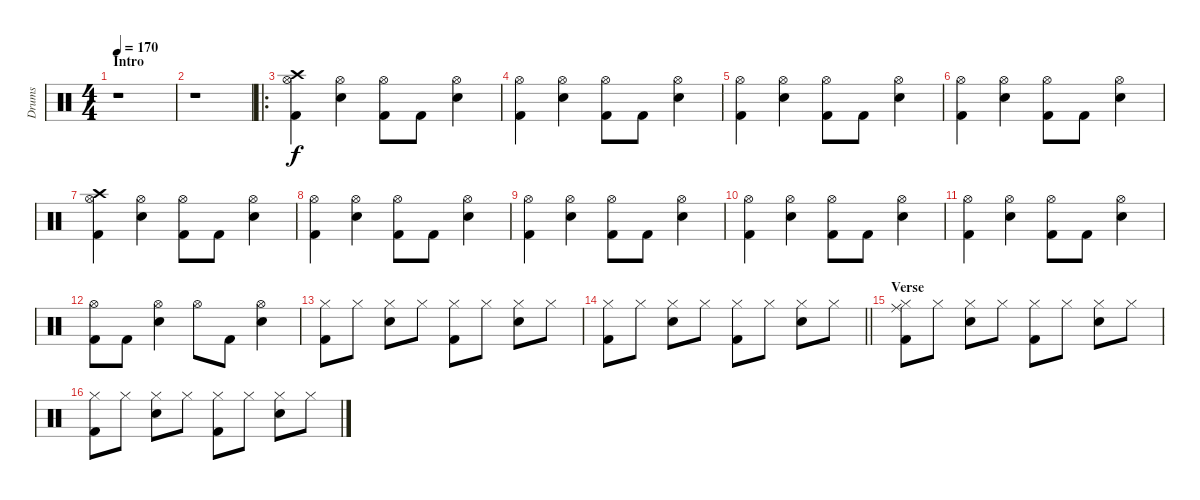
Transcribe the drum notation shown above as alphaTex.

\track ("Drums" "Drums") {instrument percussion}
\staff {score}
\articulation defaults
\ts (4 4)
\section ("" "Intro")
\tempo 170
\clef neutral
\ks c
r.1{dy f} |
r.1 |
\ro
("Crash high (hit)" "Hi-Hat (open)" "Kick (hit) 2").4 ("Hi-Hat (open)" "Electric Snare (hit)").4 ("Hi-Hat (open)" "Kick (hit) 2").8 "Kick (hit) 2".8 ("Hi-Hat (open)" "Electric Snare (hit)").4 |
("Hi-Hat (open)" "Kick (hit) 2").4 ("Hi-Hat (open)" "Electric Snare (hit)").4 ("Hi-Hat (open)" "Kick (hit) 2").8 "Kick (hit) 2".8 ("Hi-Hat (open)" "Electric Snare (hit)").4 |
("Hi-Hat (open)" "Kick (hit) 2").4 ("Hi-Hat (open)" "Electric Snare (hit)").4 ("Hi-Hat (open)" "Kick (hit) 2").8 "Kick (hit) 2".8 ("Hi-Hat (open)" "Electric Snare (hit)").4 |
("Hi-Hat (open)" "Kick (hit) 2").4 ("Hi-Hat (open)" "Electric Snare (hit)").4 ("Hi-Hat (open)" "Kick (hit) 2").8 "Kick (hit) 2".8 ("Hi-Hat (open)" "Electric Snare (hit)").4 |
("Crash high (hit)" "Hi-Hat (open)" "Kick (hit) 2").4 ("Hi-Hat (open)" "Electric Snare (hit)").4 ("Hi-Hat (open)" "Kick (hit) 2").8 "Kick (hit) 2".8 ("Hi-Hat (open)" "Electric Snare (hit)").4 |
("Hi-Hat (open)" "Kick (hit) 2").4 ("Hi-Hat (open)" "Electric Snare (hit)").4 ("Hi-Hat (open)" "Kick (hit) 2").8 "Kick (hit) 2".8 ("Hi-Hat (open)" "Electric Snare (hit)").4 |
("Hi-Hat (open)" "Kick (hit) 2").4 ("Hi-Hat (open)" "Electric Snare (hit)").4 ("Hi-Hat (open)" "Kick (hit) 2").8 "Kick (hit) 2".8 ("Hi-Hat (open)" "Electric Snare (hit)").4 |
("Hi-Hat (open)" "Kick (hit) 2").4 ("Hi-Hat (open)" "Electric Snare (hit)").4 ("Hi-Hat (open)" "Kick (hit) 2").8 "Kick (hit) 2".8 ("Hi-Hat (open)" "Electric Snare (hit)").4 |
("Hi-Hat (open)" "Kick (hit) 2").4 ("Hi-Hat (open)" "Electric Snare (hit)").4 ("Hi-Hat (open)" "Kick (hit) 2").8 "Kick (hit) 2".8 ("Hi-Hat (open)" "Electric Snare (hit)").4 |
("Hi-Hat (open)" "Kick (hit) 2").8 "Kick (hit) 2".8 ("Hi-Hat (open)" "Electric Snare (hit)").4 "Hi-Hat (open)".8 "Kick (hit) 2".8 ("Hi-Hat (open)" "Electric Snare (hit)").4 |
("Hi-Hat (closed)" "Kick (hit) 2").8 "Hi-Hat (closed)".8 ("Hi-Hat (closed)" "Electric Snare (hit)").8 "Hi-Hat (closed)".8 ("Hi-Hat (closed)" "Kick (hit) 2").8 "Hi-Hat (closed)".8 ("Hi-Hat (closed)" "Electric Snare (hit)").8 "Hi-Hat (closed)".8 |
\barLineRight lightlight
("Hi-Hat (closed)" "Kick (hit) 2").8 "Hi-Hat (closed)".8 ("Hi-Hat (closed)" "Electric Snare (hit)").8 "Hi-Hat (closed)".8 ("Hi-Hat (closed)" "Kick (hit) 2").8 "Hi-Hat (closed)".8 ("Hi-Hat (closed)" "Electric Snare (hit)").8 "Hi-Hat (closed)".8 |
\section ("" "Verse")
("Ride (middle)" "Hi-Hat (closed)" "Kick (hit) 2").8 "Hi-Hat (closed)".8 ("Hi-Hat (closed)" "Electric Snare (hit)").8 "Hi-Hat (closed)".8 ("Hi-Hat (closed)" "Kick (hit) 2").8 "Hi-Hat (closed)".8 ("Hi-Hat (closed)" "Electric Snare (hit)").8 "Hi-Hat (closed)".8 |
("Hi-Hat (closed)" "Kick (hit) 2").8 "Hi-Hat (closed)".8 ("Hi-Hat (closed)" "Electric Snare (hit)").8 "Hi-Hat (closed)".8 ("Hi-Hat (closed)" "Kick (hit) 2").8 "Hi-Hat (closed)".8 ("Hi-Hat (closed)" "Electric Snare (hit)").8 "Hi-Hat (closed)".8
